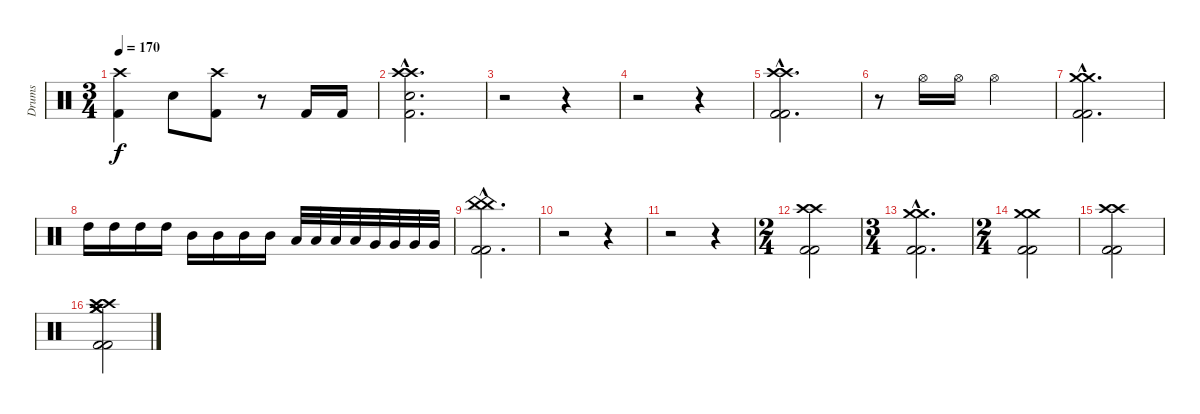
\track ("Drums" "Drums") {instrument percussion}
\staff {score}
\articulation defaults
\ts (3 4)
\tempo 170
\clef neutral
\ks c
("Crash high (hit)" "Kick (hit) 2").4{dy f} "Electric Snare (hit)".8 ("Crash high (hit)" "Kick (hit) 2").8 r.8 "Kick (hit) 2".16 "Kick (hit) 2".16 |
("Crash high (hit)"{hac} "Crash high (hit)"{hac} "Electric Snare (hit)"{hac} "Kick (hit) 2"{hac}).2{d} |
r.2 r.4 |
r.2 r.4 |
("Crash high (hit)"{hac} "Crash high (hit)"{hac} "Kick (hit) 2"{hac} "Kick (hit) 2"{hac}).2{d} |
r.8 "Hi-Hat (open)".16 "Hi-Hat (open)".16 "Hi-Hat (open)".2 |
("Crash medium (hit)"{hac} "Crash medium (hit)"{hac} "Kick (hit) 2"{hac} "Kick (hit) 2"{hac}).2{d} |
"High Tom (hit)".16 "High Tom (hit)".16 "High Tom (hit)".16 "High Tom (hit)".16 "Mid Tom (hit)".16 "Mid Tom (hit)".16 "Mid Tom (hit)".16 "Mid Tom (hit)".16 "Low Tom (hit)".32 "Low Tom (hit)".32 "Low Tom (hit)".32 "Low Tom (hit)".32 "Very Low Tom (hit)".32 "Very Low Tom (hit)".32 "Very Low Tom (hit)".32 "Very Low Tom (hit)".32 |
("China (hit)"{hac} "China (hit)"{hac} "Kick (hit) 2"{hac} "Kick (hit) 2"{hac}).2{d} |
r.2 r.4 |
r.2 r.4 |
\ts (2 4)
("Crash high (hit)" "Crash high (hit)" "Kick (hit) 2" "Kick (hit) 2").2 |
\ts (3 4)
("Crash medium (hit)"{hac} "Crash medium (hit)"{hac} "Kick (hit) 2"{hac} "Kick (hit) 2"{hac}).2{d} |
\ts (2 4)
("Crash medium (hit)" "Crash medium (hit)" "Kick (hit) 2" "Kick (hit) 2").2 |
("Crash high (hit)" "Crash high (hit)" "Kick (hit) 2" "Kick (hit) 2").2 |
("Crash medium (hit)" "Crash medium (hit)" "Crash high (hit)" "Crash high (hit)" "Kick (hit) 2" "Kick (hit) 2").2
